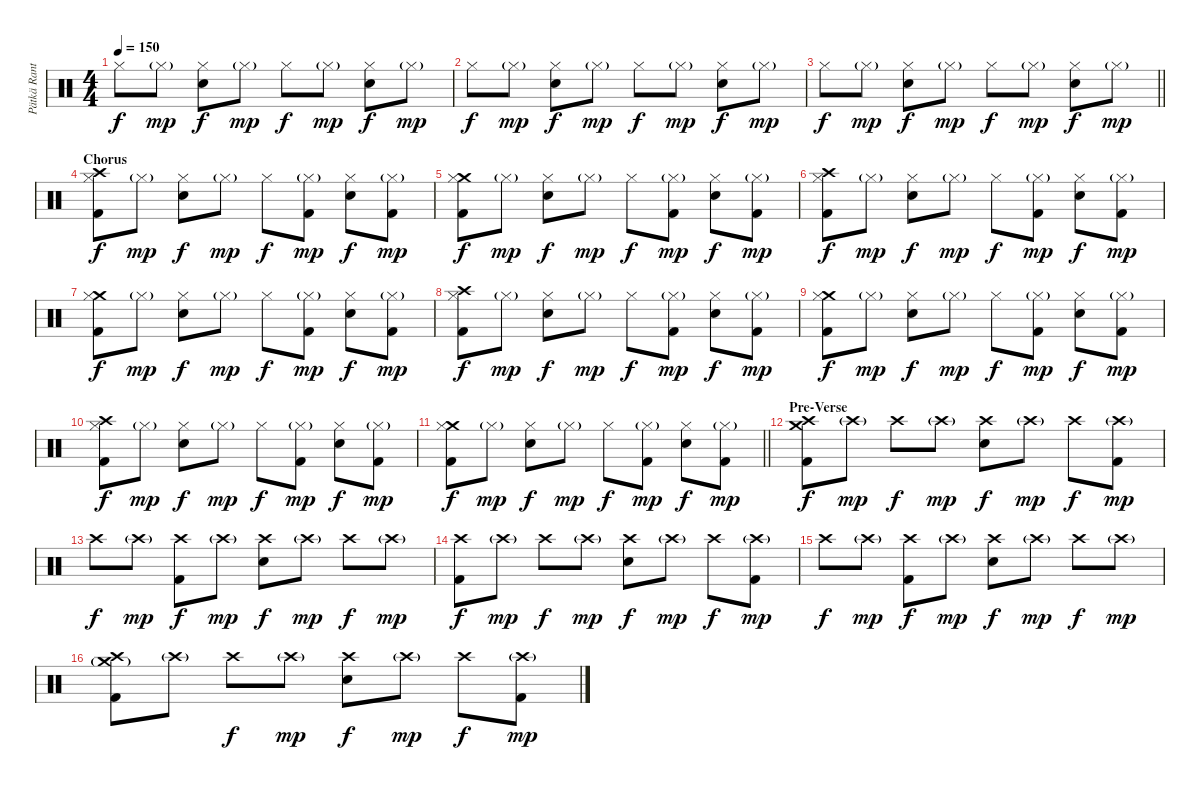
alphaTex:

\track ("Pätkä Rantala (Drums)" "Pätkä Rant") {instrument percussion}
\staff {score}
\articulation defaults
\ts (4 4)
\tempo 150
\clef neutral
\ks c "Hi-Hat (closed)".8{dy f} "Hi-Hat (closed)"{g}.8{dy mp}
("Hi-Hat (closed)" "Snare (hit) 2").8{dy f} "Hi-Hat (closed)"{g}.8{dy mp} "Hi-Hat (closed)".8{dy f} "Hi-Hat (closed)"{g}.8{dy mp} ("Hi-Hat (closed)" "Snare (hit) 2").8{dy f} "Hi-Hat (closed)"{g}.8{dy mp} |
"Hi-Hat (closed)".8{dy f} "Hi-Hat (closed)"{g}.8{dy mp} ("Hi-Hat (closed)" "Snare (hit) 2").8{dy f} "Hi-Hat (closed)"{g}.8{dy mp} "Hi-Hat (closed)".8{dy f} "Hi-Hat (closed)"{g}.8{dy mp} ("Hi-Hat (closed)" "Snare (hit) 2").8{dy f} "Hi-Hat (closed)"{g}.8{dy mp} |
\barLineRight lightlight "Hi-Hat (closed)".8{dy f} "Hi-Hat (closed)"{g}.8{dy mp}
("Hi-Hat (closed)" "Snare (hit) 2").8{dy f} "Hi-Hat (closed)"{g}.8{dy mp} "Hi-Hat (closed)".8{dy f} "Hi-Hat (closed)"{g}.8{dy mp} ("Hi-Hat (closed)" "Snare (hit) 2").8{dy f} "Hi-Hat (closed)"{g}.8{dy mp} |
\section ("" "Chorus")
("Crash high (hit)" "Hi-Hat (closed)" "Kick (hit) 2").8{dy f} "Hi-Hat (closed)"{g}.8{dy mp} ("Hi-Hat (closed)" "Snare (hit) 2").8{dy f} "Hi-Hat (closed)"{g}.8{dy mp} "Hi-Hat (closed)".8{dy f} ("Hi-Hat (closed)"{g} "Kick (hit) 2").8{dy mp} ("Hi-Hat (closed)" "Snare (hit) 2").8{dy f} ("Hi-Hat (closed)"{g} "Kick (hit) 2").8{dy mp} |
("Crash medium (hit)" "Hi-Hat (closed)" "Kick (hit) 2").8{dy f} "Hi-Hat (closed)"{g}.8{dy mp} ("Hi-Hat (closed)" "Snare (hit) 2").8{dy f} "Hi-Hat (closed)"{g}.8{dy mp} "Hi-Hat (closed)".8{dy f} ("Hi-Hat (closed)"{g} "Kick (hit) 2").8{dy mp} ("Hi-Hat (closed)" "Snare (hit) 2").8{dy f} ("Hi-Hat (closed)"{g} "Kick (hit) 2").8{dy mp} |
("Crash high (hit)" "Hi-Hat (closed)" "Kick (hit) 2").8{dy f} "Hi-Hat (closed)"{g}.8{dy mp} ("Hi-Hat (closed)" "Snare (hit) 2").8{dy f} "Hi-Hat (closed)"{g}.8{dy mp} "Hi-Hat (closed)".8{dy f} ("Hi-Hat (closed)"{g} "Kick (hit) 2").8{dy mp} ("Hi-Hat (closed)" "Snare (hit) 2").8{dy f} ("Hi-Hat (closed)"{g} "Kick (hit) 2").8{dy mp} |
("Crash medium (hit)" "Hi-Hat (closed)" "Kick (hit) 2").8{dy f} "Hi-Hat (closed)"{g}.8{dy mp} ("Hi-Hat (closed)" "Snare (hit) 2").8{dy f} "Hi-Hat (closed)"{g}.8{dy mp} "Hi-Hat (closed)".8{dy f} ("Hi-Hat (closed)"{g} "Kick (hit) 2").8{dy mp} ("Hi-Hat (closed)" "Snare (hit) 2").8{dy f} ("Hi-Hat (closed)"{g} "Kick (hit) 2").8{dy mp} |
("Crash high (hit)" "Hi-Hat (closed)" "Kick (hit) 2").8{dy f} "Hi-Hat (closed)"{g}.8{dy mp} ("Hi-Hat (closed)" "Snare (hit) 2").8{dy f} "Hi-Hat (closed)"{g}.8{dy mp} "Hi-Hat (closed)".8{dy f} ("Hi-Hat (closed)"{g} "Kick (hit) 2").8{dy mp} ("Hi-Hat (closed)" "Snare (hit) 2").8{dy f} ("Hi-Hat (closed)"{g} "Kick (hit) 2").8{dy mp} |
("Crash medium (hit)" "Hi-Hat (closed)" "Kick (hit) 2").8{dy f} "Hi-Hat (closed)"{g}.8{dy mp} ("Hi-Hat (closed)" "Snare (hit) 2").8{dy f} "Hi-Hat (closed)"{g}.8{dy mp} "Hi-Hat (closed)".8{dy f} ("Hi-Hat (closed)"{g} "Kick (hit) 2").8{dy mp} ("Hi-Hat (closed)" "Snare (hit) 2").8{dy f} ("Hi-Hat (closed)"{g} "Kick (hit) 2").8{dy mp} |
("Crash high (hit)" "Hi-Hat (closed)" "Kick (hit) 2").8{dy f} "Hi-Hat (closed)"{g}.8{dy mp} ("Hi-Hat (closed)" "Snare (hit) 2").8{dy f} "Hi-Hat (closed)"{g}.8{dy mp} "Hi-Hat (closed)".8{dy f} ("Hi-Hat (closed)"{g} "Kick (hit) 2").8{dy mp} ("Hi-Hat (closed)" "Snare (hit) 2").8{dy f} ("Hi-Hat (closed)"{g} "Kick (hit) 2").8{dy mp} |
\barLineRight lightlight
("Crash medium (hit)" "Hi-Hat (closed)" "Kick (hit) 2").8{dy f} "Hi-Hat (closed)"{g}.8{dy mp} ("Hi-Hat (closed)" "Snare (hit) 2").8{dy f} "Hi-Hat (closed)"{g}.8{dy mp} "Hi-Hat (closed)".8{dy f} ("Hi-Hat (closed)"{g} "Kick (hit) 2").8{dy mp} ("Hi-Hat (closed)" "Snare (hit) 2").8{dy f} ("Hi-Hat (closed)"{g} "Kick (hit) 2").8{dy mp} |
\section ("" "Pre-Verse")
("Crash medium (hit)" "Crash high (hit)" "Kick (hit) 2").8{dy f} "Crash high (hit)"{g}.8{dy mp} "Crash high (hit)".8{dy f} "Crash high (hit)"{g}.8{dy mp} ("Crash high (hit)" "Snare (hit) 2").8{dy f} "Crash high (hit)"{g}.8{dy mp} "Crash high (hit)".8{dy f} ("Crash high (hit)"{g} "Kick (hit) 2").8{dy mp} |
"Crash high (hit)".8{dy f} "Crash high (hit)"{g}.8{dy mp} ("Crash high (hit)" "Kick (hit) 2").8{dy f} "Crash high (hit)"{g}.8{dy mp} ("Crash high (hit)" "Snare (hit) 2").8{dy f} "Crash high (hit)"{g}.8{dy mp} "Crash high (hit)".8{dy f} "Crash high (hit)"{g}.8{dy mp} |
("Crash high (hit)" "Kick (hit) 2").8{dy f} "Crash high (hit)"{g}.8{dy mp} "Crash high (hit)".8{dy f} "Crash high (hit)"{g}.8{dy mp} ("Crash high (hit)" "Snare (hit) 2").8{dy f} "Crash high (hit)"{g}.8{dy mp} "Crash high (hit)".8{dy f} ("Crash high (hit)"{g} "Kick (hit) 2").8{dy mp} |
"Crash high (hit)".8{dy f} "Crash high (hit)"{g}.8{dy mp} ("Crash high (hit)" "Kick (hit) 2").8{dy f} "Crash high (hit)"{g}.8{dy mp} ("Crash high (hit)" "Snare (hit) 2").8{dy f} "Crash high (hit)"{g}.8{dy mp} "Crash high (hit)".8{dy f} "Crash high (hit)"{g}.8{dy mp} |
("Crash medium (hit)"{g} "Crash high (hit)" "Kick (hit) 2").8 "Crash high (hit)"{g}.8 "Crash high (hit)".8{dy f} "Crash high (hit)"{g}.8{dy mp} ("Crash high (hit)" "Snare (hit) 2").8{dy f} "Crash high (hit)"{g}.8{dy mp} "Crash high (hit)".8{dy f} ("Crash high (hit)"{g} "Kick (hit) 2").8{dy mp}
